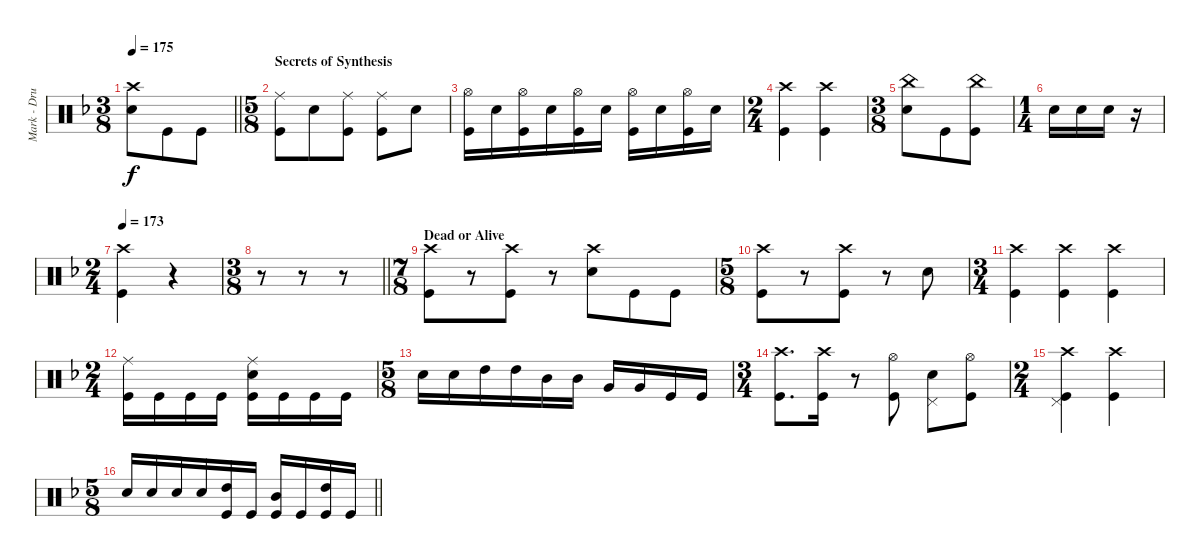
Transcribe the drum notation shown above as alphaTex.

\track ("Mark - Drums" "Mark - Dru") {instrument percussion}
\staff {score}
\articulation defaults
\ts (3 8)
\tempo 175
\clef neutral
\barLineRight lightlight
\ks dminor
("Crash high (hit)" "Snare (hit) 2").8{dy f} "Kick (hit)".8 "Kick (hit)".8 |
\ts (5 8)
\section ("" "Secrets of Synthesis")
("Kick (hit)" "Ride (middle)").8 "Snare (hit) 2".8 ("Kick (hit)" "Ride (middle)").8 ("Kick (hit)" "Ride (middle)").8 "Snare (hit) 2".8 |
("Kick (hit)" "Hi-Hat (open)").16 "Snare (hit) 2".16 ("Kick (hit)" "Hi-Hat (open)").16 "Snare (hit) 2".16 ("Kick (hit)" "Hi-Hat (open)").16 "Snare (hit) 2".16 ("Kick (hit)" "Hi-Hat (open)").16 "Snare (hit) 2".16 ("Kick (hit)" "Hi-Hat (open)").16 "Snare (hit) 2".16 |
\ts (2 4)
("Kick (hit)" "Crash high (hit)").4 ("Kick (hit)" "Crash high (hit)").4 |
\ts (3 8)
("Snare (hit) 2" "China (hit)").8 "Kick (hit)".8 ("Kick (hit)" "China (hit)").8 |
\ts (1 4)
"Snare (hit) 2".16 "Snare (hit) 2".16 "Snare (hit) 2".16 r.16 |
\ts (2 4)
\tempo 173
("Kick (hit)" "Crash high (hit)").4 r.4 |
\ts (3 8)
\barLineRight lightlight
r.8 r.8 r.8 |
\ts (7 8)
\section ("" "Dead or Alive")
("Kick (hit)" "Crash high (hit)").8 r.8 ("Kick (hit)" "Crash high (hit)").8 r.8 ("Snare (hit) 2" "Crash high (hit)").8 "Kick (hit)".8 "Kick (hit)".8 |
\ts (5 8)
("Kick (hit)" "Crash high (hit)").8 r.8 ("Kick (hit)" "Crash high (hit)").8 r.8 "Snare (hit) 2".8 |
\ts (3 4)
("Kick (hit)" "Crash high (hit)").4 ("Kick (hit)" "Crash high (hit)").4 ("Kick (hit)" "Crash high (hit)").4 |
\ts (2 4)
("Kick (hit)" "Ride (middle)").16 "Kick (hit)".16 "Kick (hit)".16 "Kick (hit)".16 ("Kick (hit)" "Snare (hit) 2" "Ride (middle)").16 "Kick (hit)".16 "Kick (hit)".16 "Kick (hit)".16 |
\ts (5 8)
"Snare (hit) 2".16 "Snare (hit) 2".16 "High Tom (hit)".16 "High Tom (hit)".16 "Mid Tom (hit)".16 "Mid Tom (hit)".16 "Very Low Tom (hit)".16 "Very Low Tom (hit)".16 "Kick (hit)".16 "Kick (hit)".16 |
\ts (3 4)
("Kick (hit)" "Crash high (hit)").8{d} ("Kick (hit)" "Crash high (hit)").16 r.8 ("Kick (hit)" "Hi-Hat (open)").8 ("Snare (hit) 2" "Pedal Hi-Hat (hit)").8 ("Kick (hit)" "Hi-Hat (open)").8 |
\ts (2 4)
("Kick (hit)" "Crash high (hit)" "Pedal Hi-Hat (hit)").4 ("Kick (hit)" "Crash high (hit)").4 |
\ts (5 8)
\barLineRight lightlight "Snare (hit) 2".16 "Snare (hit) 2".16 "Snare (hit) 2".16 "Snare (hit) 2".16
("Kick (hit)" "High Tom (hit)").16 "Kick (hit)".16 ("Kick (hit)" "Mid Tom (hit)").16 "Kick (hit)".16 ("Kick (hit)" "High Tom (hit)").16 "Kick (hit)".16
